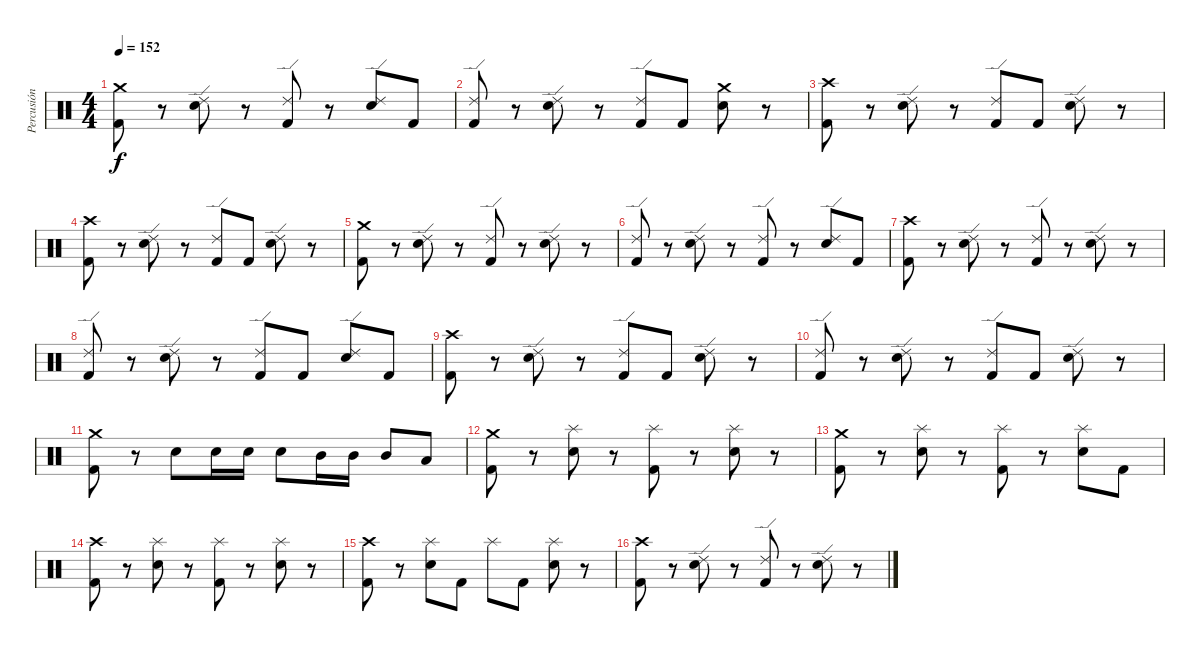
\track ("Percusión" "Percusión") {instrument percussion}
\staff {score}
\articulation defaults
\ts (4 4)
\tempo 152
\clef neutral
\ks c
("Crash medium (hit)" "Kick (hit) 2").8{dy f} r.8 ("Ride (edge) 2" "Snare (hit) 2").8 r.8 ("Ride (edge) 2" "Kick (hit) 2").8 r.8 ("Ride (edge) 2" "Snare (hit) 2").8 "Kick (hit) 2".8 |
("Ride (edge) 2" "Kick (hit) 2").8 r.8 ("Ride (edge) 2" "Snare (hit) 2").8 r.8 ("Ride (edge) 2" "Kick (hit) 2").8 "Kick (hit) 2".8 ("Crash medium (hit)" "Snare (hit) 2").8 r.8 |
("Crash high (hit)" "Kick (hit) 2").8 r.8 ("Ride (edge) 2" "Snare (hit) 2").8 r.8 ("Ride (edge) 2" "Kick (hit) 2").8 "Kick (hit) 2".8 ("Ride (edge) 2" "Snare (hit) 2").8 r.8 |
("Crash high (hit)" "Kick (hit) 2").8 r.8 ("Ride (edge) 2" "Snare (hit) 2").8 r.8 ("Ride (edge) 2" "Kick (hit) 2").8 "Kick (hit) 2".8 ("Ride (edge) 2" "Snare (hit) 2").8 r.8 |
("Crash medium (hit)" "Kick (hit) 2").8 r.8 ("Ride (edge) 2" "Snare (hit) 2").8 r.8 ("Ride (edge) 2" "Kick (hit) 2").8 r.8 ("Ride (edge) 2" "Snare (hit) 2").8 r.8 |
("Ride (edge) 2" "Kick (hit) 2").8 r.8 ("Ride (edge) 2" "Snare (hit) 2").8 r.8 ("Ride (edge) 2" "Kick (hit) 2").8 r.8 ("Ride (edge) 2" "Snare (hit) 2").8 "Kick (hit) 2".8 |
("Crash high (hit)" "Kick (hit) 2").8 r.8 ("Ride (edge) 2" "Snare (hit) 2").8 r.8 ("Ride (edge) 2" "Kick (hit) 2").8 r.8 ("Ride (edge) 2" "Snare (hit) 2").8 r.8 |
("Ride (edge) 2" "Kick (hit) 2").8 r.8 ("Ride (edge) 2" "Snare (hit) 2").8 r.8 ("Ride (edge) 2" "Kick (hit) 2").8 "Kick (hit) 2".8 ("Ride (edge) 2" "Snare (hit) 2").8 "Kick (hit) 2".8 |
("Crash high (hit)" "Kick (hit) 2").8 r.8 ("Ride (edge) 2" "Snare (hit) 2").8 r.8 ("Ride (edge) 2" "Kick (hit) 2").8 "Kick (hit) 2".8 ("Ride (edge) 2" "Snare (hit) 2").8 r.8 |
("Ride (edge) 2" "Kick (hit) 2").8 r.8 ("Ride (edge) 2" "Snare (hit) 2").8 r.8 ("Ride (edge) 2" "Kick (hit) 2").8 "Kick (hit) 2".8 ("Ride (edge) 2" "Snare (hit) 2").8 r.8 |
("Crash medium (hit)" "Kick (hit) 2").8 r.8 "Snare (hit) 2".8 "Snare (hit) 2".16 "Snare (hit) 2".16 "Snare (hit) 2".8 "Mid Tom (hit)".16 "Mid Tom (hit)".16 "Mid Tom (hit)".8 "Low Tom (hit)".8 |
("Crash medium (hit)" "Kick (hit) 2").8 r.8 ("Splash (hit)" "Snare (hit) 2").8 r.8 ("Splash (hit)" "Kick (hit) 2").8 r.8 ("Splash (hit)" "Snare (hit) 2").8 r.8 |
("Crash medium (hit)" "Kick (hit) 2").8 r.8 ("Splash (hit)" "Snare (hit) 2").8 r.8 ("Splash (hit)" "Kick (hit) 2").8 r.8 ("Splash (hit)" "Snare (hit) 2").8 "Kick (hit) 2".8 |
("Crash high (hit)" "Kick (hit) 2").8 r.8 ("Splash (hit)" "Snare (hit) 2").8 r.8 ("Splash (hit)" "Kick (hit) 2").8 r.8 ("Splash (hit)" "Snare (hit) 2").8 r.8 |
("Crash high (hit)" "Kick (hit) 2").8 r.8 ("Splash (hit)" "Snare (hit) 2").8 "Kick (hit) 2".8 "Splash (hit)".8 "Kick (hit) 2".8 ("Splash (hit)" "Snare (hit) 2").8 r.8 |
("Crash high (hit)" "Kick (hit) 2").8 r.8 ("Ride (edge) 2" "Snare (hit) 2").8 r.8 ("Ride (edge) 2" "Kick (hit) 2").8 r.8 ("Ride (edge) 2" "Snare (hit) 2").8 r.8
